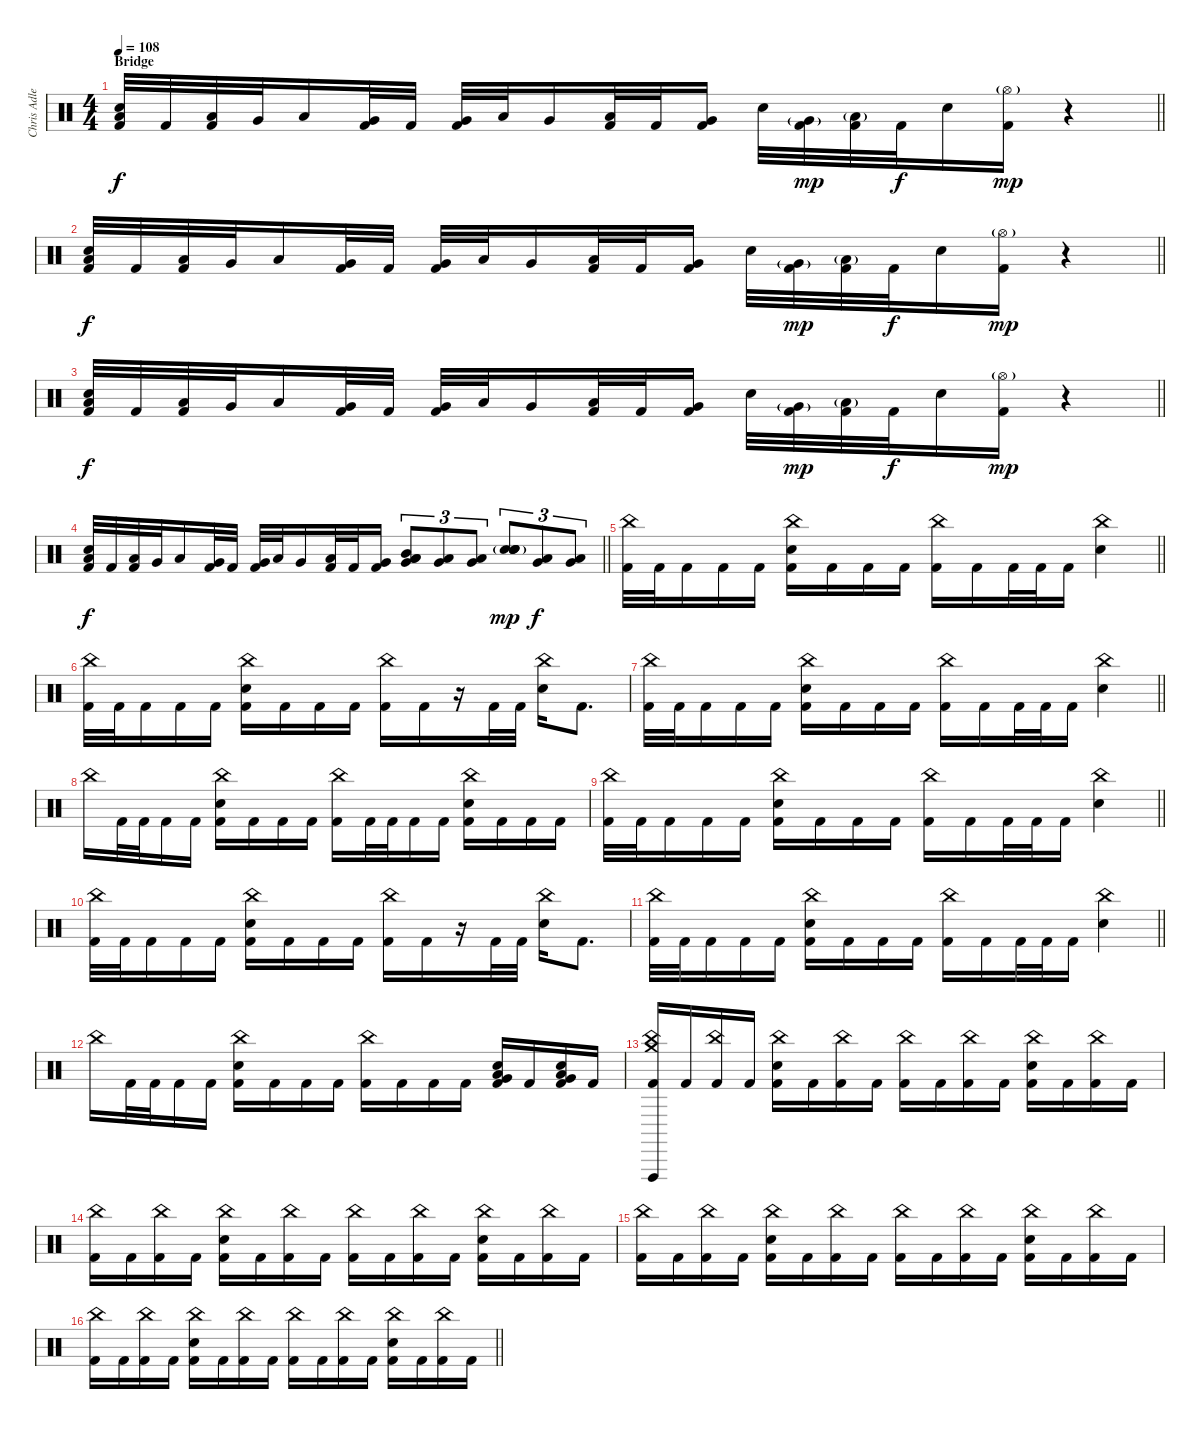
\track ("Chris Adler" "Chris Adle") {instrument percussion}
\staff {score}
\articulation defaults
\ts (4 4)
\section ("" "Bridge")
\tempo 108
\clef neutral
\barLineRight lightlight
\ks c
("Low Tom (hit)" "Electric Snare (hit)" "Kick (hit) 2").32{dy f} "Kick (hit) 2".32 ("Low Tom (hit)" "Kick (hit) 2").32 "Very Low Tom (hit)".32 "Low Floor Tom (hit)".16 ("Very Low Tom (hit)" "Kick (hit) 2").32 "Kick (hit) 2".32 ("Very Low Tom (hit)" "Kick (hit) 2").32 "Low Floor Tom (hit)".32 "Very Low Tom (hit)".16 ("Low Floor Tom (hit)" "Kick (hit) 2").32 "Kick (hit) 2".32 ("Very Low Tom (hit)" "Kick (hit) 2").16 "Electric Snare (hit)".32 ("Very Low Tom (hit)"{g} "Kick (hit) 2").32{dy mp} ("Low Floor Tom (hit)"{g} "Kick (hit) 2").32 "Kick (hit) 2".32{dy f} "Electric Snare (hit)".16 ("Hi-Hat (open)"{g} "Kick (hit) 2").16{dy mp} r.4 |
\barLineRight lightlight
("Low Tom (hit)" "Electric Snare (hit)" "Kick (hit) 2").32{dy f} "Kick (hit) 2".32 ("Low Tom (hit)" "Kick (hit) 2").32 "Very Low Tom (hit)".32 "Low Floor Tom (hit)".16 ("Very Low Tom (hit)" "Kick (hit) 2").32 "Kick (hit) 2".32 ("Very Low Tom (hit)" "Kick (hit) 2").32 "Low Floor Tom (hit)".32 "Very Low Tom (hit)".16 ("Low Floor Tom (hit)" "Kick (hit) 2").32 "Kick (hit) 2".32 ("Very Low Tom (hit)" "Kick (hit) 2").16 "Electric Snare (hit)".32 ("Very Low Tom (hit)"{g} "Kick (hit) 2").32{dy mp} ("Low Floor Tom (hit)"{g} "Kick (hit) 2").32 "Kick (hit) 2".32{dy f} "Electric Snare (hit)".16 ("Hi-Hat (open)"{g} "Kick (hit) 2").16{dy mp} r.4 |
\barLineRight lightlight
("Low Tom (hit)" "Electric Snare (hit)" "Kick (hit) 2").32{dy f} "Kick (hit) 2".32 ("Low Tom (hit)" "Kick (hit) 2").32 "Very Low Tom (hit)".32 "Low Floor Tom (hit)".16 ("Very Low Tom (hit)" "Kick (hit) 2").32 "Kick (hit) 2".32 ("Very Low Tom (hit)" "Kick (hit) 2").32 "Low Floor Tom (hit)".32 "Very Low Tom (hit)".16 ("Low Floor Tom (hit)" "Kick (hit) 2").32 "Kick (hit) 2".32 ("Very Low Tom (hit)" "Kick (hit) 2").16 "Electric Snare (hit)".32 ("Very Low Tom (hit)"{g} "Kick (hit) 2").32{dy mp} ("Low Floor Tom (hit)"{g} "Kick (hit) 2").32 "Kick (hit) 2".32{dy f} "Electric Snare (hit)".16 ("Hi-Hat (open)"{g} "Kick (hit) 2").16{dy mp} r.4 |
\barLineRight lightlight
("Low Tom (hit)" "Electric Snare (hit)" "Kick (hit) 2").32{dy f} "Kick (hit) 2".32 ("Low Tom (hit)" "Kick (hit) 2").32 "Very Low Tom (hit)".32 "Low Floor Tom (hit)".16 ("Very Low Tom (hit)" "Kick (hit) 2").32 "Kick (hit) 2".32 ("Very Low Tom (hit)" "Kick (hit) 2").32 "Low Floor Tom (hit)".32 "Very Low Tom (hit)".16 ("Low Floor Tom (hit)" "Kick (hit) 2").32 "Kick (hit) 2".32 ("Very Low Tom (hit)" "Kick (hit) 2").16 ("Mid Tom (hit)" "Very Low Tom (hit)" "Low Tom (hit)" "Low Floor Tom (hit)").8{tu (3 2)} ("Low Tom (hit)" "Very Low Tom (hit)").8{tu (3 2)} ("Very Low Tom (hit)" "Low Floor Tom (hit)").8{tu (3 2)} ("Snare (hit) 2"{g} "Electric Snare (hit)" "Electric Snare (hit)" "Electric Snare (hit)").8{tu (3 2) dy mp} ("Low Tom (hit)" "Very Low Tom (hit)").8{tu (3 2) dy f} ("Very Low Tom (hit)" "Low Floor Tom (hit)").8{tu (3 2)} |
\barLineRight lightlight
("China (hit)" "Kick (hit) 2").32 "Kick (hit) 2".32 "Kick (hit) 2".16 "Kick (hit) 2".16 "Kick (hit) 2".16 ("China (hit)" "Electric Snare (hit)" "Kick (hit) 2").16 "Kick (hit) 2".16 "Kick (hit) 2".16 "Kick (hit) 2".16 ("China (hit)" "Kick (hit) 2").16 "Kick (hit) 2".16 "Kick (hit) 2".32 "Kick (hit) 2".32 "Kick (hit) 2".16 ("China (hit)" "Electric Snare (hit)").4 |
("China (hit)" "Kick (hit) 2").32 "Kick (hit) 2".32 "Kick (hit) 2".16 "Kick (hit) 2".16 "Kick (hit) 2".16 ("China (hit)" "Electric Snare (hit)" "Kick (hit) 2").16 "Kick (hit) 2".16 "Kick (hit) 2".16 "Kick (hit) 2".16 ("China (hit)" "Kick (hit) 2").16 "Kick (hit) 2".16 r.16 "Kick (hit) 2".32 "Kick (hit) 2".32 ("China (hit)" "Electric Snare (hit)").16 "Kick (hit) 2".8{d} |
\barLineRight lightlight
("China (hit)" "Kick (hit) 2").32 "Kick (hit) 2".32 "Kick (hit) 2".16 "Kick (hit) 2".16 "Kick (hit) 2".16 ("China (hit)" "Electric Snare (hit)" "Kick (hit) 2").16 "Kick (hit) 2".16 "Kick (hit) 2".16 "Kick (hit) 2".16 ("China (hit)" "Kick (hit) 2").16 "Kick (hit) 2".16 "Kick (hit) 2".32 "Kick (hit) 2".32 "Kick (hit) 2".16 ("China (hit)" "Electric Snare (hit)").4 |
"China (hit)".16 "Kick (hit) 2".32 "Kick (hit) 2".32 "Kick (hit) 2".16 "Kick (hit) 2".16 ("China (hit)" "Electric Snare (hit)" "Kick (hit) 2").16 "Kick (hit) 2".16 "Kick (hit) 2".16 "Kick (hit) 2".16 ("China (hit)" "Kick (hit) 2").16 "Kick (hit) 2".32 "Kick (hit) 2".32 "Kick (hit) 2".16 "Kick (hit) 2".16 ("China (hit)" "Electric Snare (hit)" "Kick (hit) 2").16 "Kick (hit) 2".16 "Kick (hit) 2".16 "Kick (hit) 2".16 |
\barLineRight lightlight
("China (hit)" "Kick (hit) 2").32 "Kick (hit) 2".32 "Kick (hit) 2".16 "Kick (hit) 2".16 "Kick (hit) 2".16 ("China (hit)" "Electric Snare (hit)" "Kick (hit) 2").16 "Kick (hit) 2".16 "Kick (hit) 2".16 "Kick (hit) 2".16 ("China (hit)" "Kick (hit) 2").16 "Kick (hit) 2".16 "Kick (hit) 2".32 "Kick (hit) 2".32 "Kick (hit) 2".16 ("China (hit)" "Electric Snare (hit)").4 |
("China (hit)" "Kick (hit) 2").32 "Kick (hit) 2".32 "Kick (hit) 2".16 "Kick (hit) 2".16 "Kick (hit) 2".16 ("China (hit)" "Electric Snare (hit)" "Kick (hit) 2").16 "Kick (hit) 2".16 "Kick (hit) 2".16 "Kick (hit) 2".16 ("China (hit)" "Kick (hit) 2").16 "Kick (hit) 2".16 r.16 "Kick (hit) 2".32 "Kick (hit) 2".32 ("China (hit)" "Electric Snare (hit)").16 "Kick (hit) 2".8{d} |
\barLineRight lightlight
("China (hit)" "Kick (hit) 2").32 "Kick (hit) 2".32 "Kick (hit) 2".16 "Kick (hit) 2".16 "Kick (hit) 2".16 ("China (hit)" "Electric Snare (hit)" "Kick (hit) 2").16 "Kick (hit) 2".16 "Kick (hit) 2".16 "Kick (hit) 2".16 ("China (hit)" "Kick (hit) 2").16 "Kick (hit) 2".16 "Kick (hit) 2".32 "Kick (hit) 2".32 "Kick (hit) 2".16 ("China (hit)" "Electric Snare (hit)").4 |
"China (hit)".16 "Kick (hit) 2".32 "Kick (hit) 2".32 "Kick (hit) 2".16 "Kick (hit) 2".16 ("China (hit)" "Electric Snare (hit)" "Kick (hit) 2").16 "Kick (hit) 2".16 "Kick (hit) 2".16 "Kick (hit) 2".16 ("China (hit)" "Kick (hit) 2").16 "Kick (hit) 2".16 "Kick (hit) 2".16 "Kick (hit) 2".16 ("Very Low Tom (hit)" "Electric Snare (hit)" "Low Floor Tom (hit)" "Kick (hit) 2").16 "Kick (hit) 2".16 ("Very Low Tom (hit)" "Electric Snare (hit)" "Low Floor Tom (hit)" "Kick (hit) 2").16 "Kick (hit) 2".16 |
("China (hit)" "Crash medium (hit)" "Vibraslap (hit)" "Kick (hit) 2").16 "Kick (hit) 2".16 ("China (hit)" "Kick (hit) 2").16 "Kick (hit) 2".16 ("China (hit)" "Electric Snare (hit)" "Kick (hit) 2").16 "Kick (hit) 2".16 ("China (hit)" "Kick (hit) 2").16 "Kick (hit) 2".16 ("China (hit)" "Kick (hit) 2").16 "Kick (hit) 2".16 ("China (hit)" "Kick (hit) 2").16 "Kick (hit) 2".16 ("China (hit)" "Electric Snare (hit)" "Kick (hit) 2").16 "Kick (hit) 2".16 ("China (hit)" "Kick (hit) 2").16 "Kick (hit) 2".16 |
("China (hit)" "Kick (hit) 2").16 "Kick (hit) 2".16 ("China (hit)" "Kick (hit) 2").16 "Kick (hit) 2".16 ("China (hit)" "Electric Snare (hit)" "Kick (hit) 2").16 "Kick (hit) 2".16 ("China (hit)" "Kick (hit) 2").16 "Kick (hit) 2".16 ("China (hit)" "Kick (hit) 2").16 "Kick (hit) 2".16 ("China (hit)" "Kick (hit) 2").16 "Kick (hit) 2".16 ("China (hit)" "Electric Snare (hit)" "Kick (hit) 2").16 "Kick (hit) 2".16 ("China (hit)" "Kick (hit) 2").16 "Kick (hit) 2".16 |
("China (hit)" "Kick (hit) 2").16 "Kick (hit) 2".16 ("China (hit)" "Kick (hit) 2").16 "Kick (hit) 2".16 ("China (hit)" "Electric Snare (hit)" "Kick (hit) 2").16 "Kick (hit) 2".16 ("China (hit)" "Kick (hit) 2").16 "Kick (hit) 2".16 ("China (hit)" "Kick (hit) 2").16 "Kick (hit) 2".16 ("China (hit)" "Kick (hit) 2").16 "Kick (hit) 2".16 ("China (hit)" "Electric Snare (hit)" "Kick (hit) 2").16 "Kick (hit) 2".16 ("China (hit)" "Kick (hit) 2").16 "Kick (hit) 2".16 |
\barLineRight lightlight
("China (hit)" "Kick (hit) 2").16 "Kick (hit) 2".16 ("China (hit)" "Kick (hit) 2").16 "Kick (hit) 2".16 ("China (hit)" "Electric Snare (hit)" "Kick (hit) 2").16 "Kick (hit) 2".16 ("China (hit)" "Kick (hit) 2").16 "Kick (hit) 2".16 ("China (hit)" "Kick (hit) 2").16 "Kick (hit) 2".16 ("China (hit)" "Kick (hit) 2").16 "Kick (hit) 2".16 ("China (hit)" "Electric Snare (hit)" "Kick (hit) 2").16 "Kick (hit) 2".16 ("China (hit)" "Kick (hit) 2").16 "Kick (hit) 2".16
